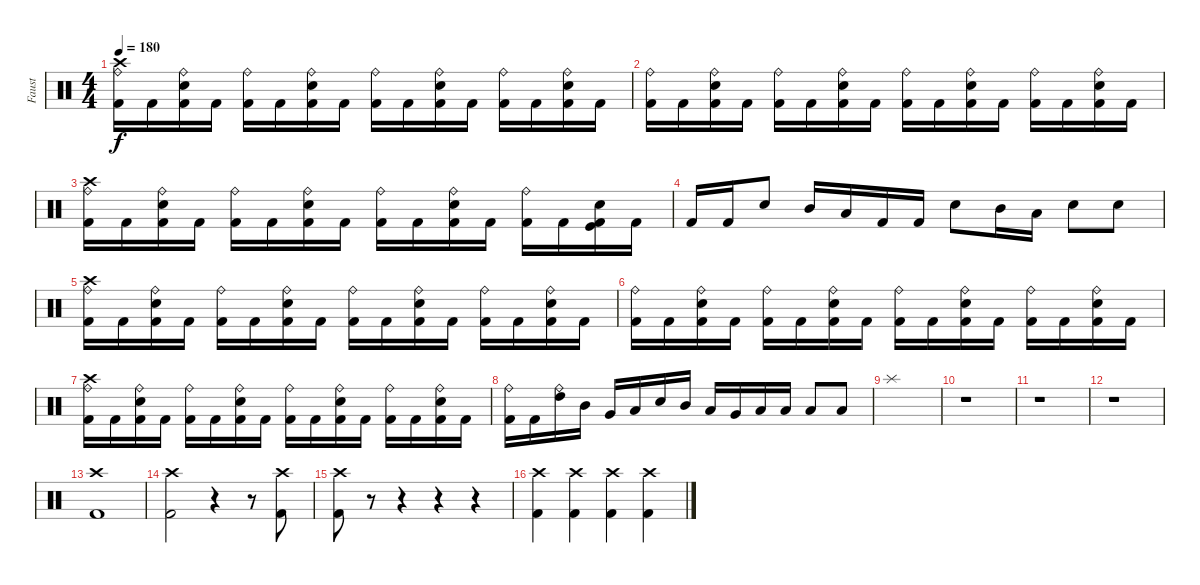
\track ("Faust" "Faust") {instrument percussion}
\staff {score}
\articulation defaults
\ts (4 4)
\tempo 180
\clef neutral
\ks c
("Crash high (hit)" "Ride (bell)" "Kick (hit) 2").16{dy f} "Kick (hit) 2".16 ("Ride (bell)" "Snare (hit) 2" "Kick (hit) 2").16 "Kick (hit) 2".16 ("Ride (bell)" "Kick (hit) 2").16 "Kick (hit) 2".16 ("Ride (bell)" "Snare (hit) 2" "Kick (hit) 2").16 "Kick (hit) 2".16 ("Ride (bell)" "Kick (hit) 2").16 "Kick (hit) 2".16 ("Ride (bell)" "Snare (hit) 2" "Kick (hit) 2").16 "Kick (hit) 2".16 ("Ride (bell)" "Kick (hit) 2").16 "Kick (hit) 2".16 ("Ride (bell)" "Snare (hit) 2" "Kick (hit) 2").16 "Kick (hit) 2".16 |
("Ride (bell)" "Kick (hit) 2").16 "Kick (hit) 2".16 ("Ride (bell)" "Snare (hit) 2" "Kick (hit) 2").16 "Kick (hit) 2".16 ("Ride (bell)" "Kick (hit) 2").16 "Kick (hit) 2".16 ("Ride (bell)" "Snare (hit) 2" "Kick (hit) 2").16 "Kick (hit) 2".16 ("Ride (bell)" "Kick (hit) 2").16 "Kick (hit) 2".16 ("Ride (bell)" "Snare (hit) 2" "Kick (hit) 2").16 "Kick (hit) 2".16 ("Ride (bell)" "Kick (hit) 2").16 "Kick (hit) 2".16 ("Ride (bell)" "Snare (hit) 2" "Kick (hit) 2").16 "Kick (hit) 2".16 |
("Crash high (hit)" "Ride (bell)" "Kick (hit) 2").16 "Kick (hit) 2".16 ("Ride (bell)" "Snare (hit) 2" "Kick (hit) 2").16 "Kick (hit) 2".16 ("Ride (bell)" "Kick (hit) 2").16 "Kick (hit) 2".16 ("Ride (bell)" "Snare (hit) 2" "Kick (hit) 2").16 "Kick (hit) 2".16 ("Ride (bell)" "Kick (hit) 2").16 "Kick (hit) 2".16 ("Ride (bell)" "Snare (hit) 2" "Kick (hit) 2").16 "Kick (hit) 2".16 ("Ride (bell)" "Kick (hit) 2").16 "Kick (hit) 2".16 ("Kick (hit)" "Snare (hit) 2" "Kick (hit) 2").16 "Kick (hit) 2".16 |
"Kick (hit) 2".16 "Kick (hit) 2".16 "Snare (hit) 2".8 "Mid Tom (hit)".16 "Low Tom (hit)".16 "Kick (hit) 2".16 "Kick (hit) 2".16 "Snare (hit) 2".8 "Mid Tom (hit)".16 "Low Tom (hit)".16 "Snare (hit) 2".8 "Snare (hit) 2".8 |
("Crash high (hit)" "Ride (bell)" "Kick (hit) 2").16 "Kick (hit) 2".16 ("Ride (bell)" "Snare (hit) 2" "Kick (hit) 2").16 "Kick (hit) 2".16 ("Ride (bell)" "Kick (hit) 2").16 "Kick (hit) 2".16 ("Ride (bell)" "Snare (hit) 2" "Kick (hit) 2").16 "Kick (hit) 2".16 ("Ride (bell)" "Kick (hit) 2").16 "Kick (hit) 2".16 ("Ride (bell)" "Snare (hit) 2" "Kick (hit) 2").16 "Kick (hit) 2".16 ("Ride (bell)" "Kick (hit) 2").16 "Kick (hit) 2".16 ("Ride (bell)" "Snare (hit) 2" "Kick (hit) 2").16 "Kick (hit) 2".16 |
("Ride (bell)" "Kick (hit) 2").16 "Kick (hit) 2".16 ("Ride (bell)" "Snare (hit) 2" "Kick (hit) 2").16 "Kick (hit) 2".16 ("Ride (bell)" "Kick (hit) 2").16 "Kick (hit) 2".16 ("Ride (bell)" "Snare (hit) 2" "Kick (hit) 2").16 "Kick (hit) 2".16 ("Ride (bell)" "Kick (hit) 2").16 "Kick (hit) 2".16 ("Ride (bell)" "Snare (hit) 2" "Kick (hit) 2").16 "Kick (hit) 2".16 ("Ride (bell)" "Kick (hit) 2").16 "Kick (hit) 2".16 ("Ride (bell)" "Snare (hit) 2" "Kick (hit) 2").16 "Kick (hit) 2".16 |
("Crash high (hit)" "Ride (bell)" "Kick (hit) 2").16 "Kick (hit) 2".16 ("Ride (bell)" "Snare (hit) 2" "Kick (hit) 2").16 "Kick (hit) 2".16 ("Ride (bell)" "Kick (hit) 2").16 "Kick (hit) 2".16 ("Ride (bell)" "Snare (hit) 2" "Kick (hit) 2").16 "Kick (hit) 2".16 ("Ride (bell)" "Kick (hit) 2").16 "Kick (hit) 2".16 ("Ride (bell)" "Snare (hit) 2" "Kick (hit) 2").16 "Kick (hit) 2".16 ("Ride (bell)" "Kick (hit) 2").16 "Kick (hit) 2".16 ("Ride (bell)" "Snare (hit) 2" "Kick (hit) 2").16 "Kick (hit) 2".16 |
("Ride (bell)" "Kick (hit) 2").16 "Kick (hit) 2".16 ("Ride (bell)" "High Tom (hit)").16 "Mid Tom (hit)".16 "Very Low Tom (hit)".16 "Low Tom (hit)".16 "Snare (hit) 2".16 "Mid Tom (hit)".16 "Low Tom (hit)".16 "Very Low Tom (hit)".16 "Low Floor Tom (hit)".16 "Low Floor Tom (hit)".16 "Low Tom (hit)".8 "Low Tom (hit)".8 |
"Splash (hit)".1 |
r.1 |
r.1 |
r.1 |
("Crash high (hit)" "Kick (hit) 2").1 |
("Crash high (hit)" "Kick (hit) 2").2 r.4 r.8 ("Crash high (hit)" "Kick (hit) 2").8 |
("Crash high (hit)" "Kick (hit) 2").8 r.8 r.4 r.4 r.4 |
("Crash high (hit)" "Kick (hit) 2").4 ("Crash high (hit)" "Kick (hit) 2").4 ("Crash high (hit)" "Kick (hit) 2").4 ("Crash high (hit)" "Kick (hit) 2").4
